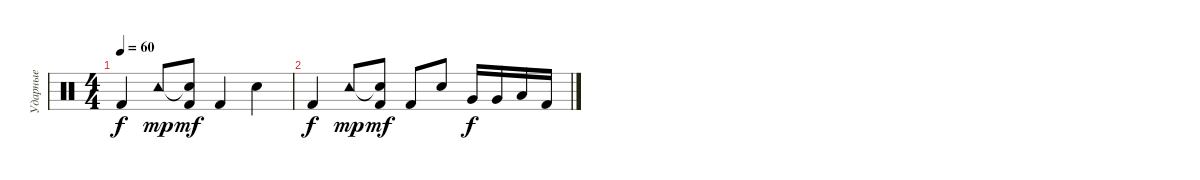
\track ("Ударные" "Ударные") {instrument percussion}
\staff {score}
\articulation defaults
\ts (4 4)
\tempo 60
\clef neutral
\ks c "Kick (hit) 2".4{dy f} "Tambourine (hit)".8{dy mp}
("Snare (hit)"{t} "Kick (hit) 2").8{dy mf} "Kick (hit) 2".4 "Snare (hit) 2".4 |
"Kick (hit) 2".4{dy f} "Tambourine (hit)".8{dy mp} ("Snare (hit)"{t} "Kick (hit) 2").8{dy mf} "Kick (hit) 2".8 "Snare (hit) 2".8 "Very Low Tom (hit)".16{dy f} "Very Low Tom (hit)".16 "Low Floor Tom (hit)".16 "Kick (hit) 2".16
